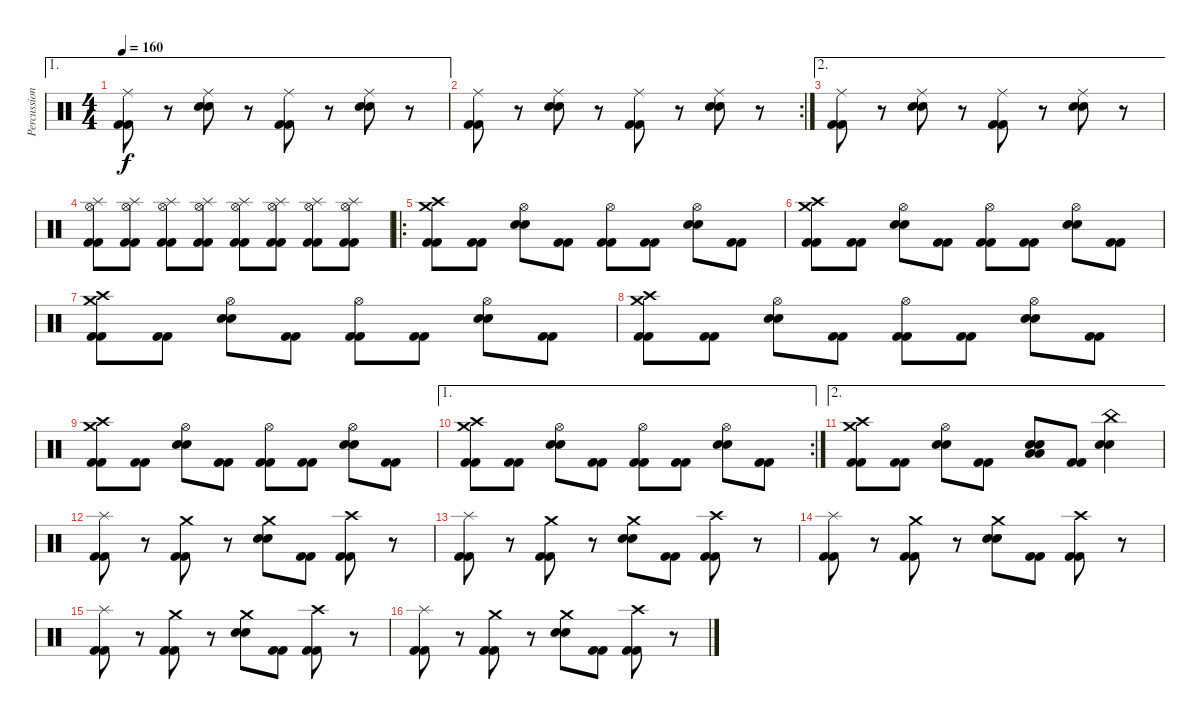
\track ("Percussion" "Percussion") {instrument percussion}
\staff {score}
\articulation defaults
\ae 1
\ts (4 4)
\tempo 160
\clef neutral
\ks c
("Ride (middle)" "Kick (hit) 2" "Kick (hit) 2").8{dy f} r.8 ("Ride (middle)" "Snare (hit) 2" "Snare (hit) 2").8 r.8 ("Ride (middle)" "Kick (hit) 2" "Kick (hit) 2").8 r.8 ("Ride (middle)" "Snare (hit) 2" "Snare (hit) 2").8 r.8 |
\rc 2
("Ride (middle)" "Kick (hit) 2" "Kick (hit) 2").8 r.8 ("Ride (middle)" "Snare (hit) 2" "Snare (hit) 2").8 r.8 ("Ride (middle)" "Kick (hit) 2" "Kick (hit) 2").8 r.8 ("Ride (middle)" "Snare (hit) 2" "Snare (hit) 2").8 r.8 |
\ae 2
("Ride (middle)" "Kick (hit) 2" "Kick (hit) 2").8 r.8 ("Ride (middle)" "Snare (hit) 2" "Snare (hit) 2").8 r.8 ("Ride (middle)" "Kick (hit) 2" "Kick (hit) 2").8 r.8 ("Ride (middle)" "Snare (hit) 2" "Snare (hit) 2").8 r.8 |
("Splash (hit)" "Hi-Hat (open)" "Kick (hit) 2" "Kick (hit) 2").8 ("Splash (hit)" "Hi-Hat (open)" "Kick (hit) 2" "Kick (hit) 2").8 ("Splash (hit)" "Hi-Hat (open)" "Kick (hit) 2" "Kick (hit) 2").8 ("Splash (hit)" "Hi-Hat (open)" "Kick (hit) 2" "Kick (hit) 2").8 ("Splash (hit)" "Hi-Hat (open)" "Kick (hit) 2" "Kick (hit) 2").8 ("Splash (hit)" "Hi-Hat (open)" "Kick (hit) 2" "Kick (hit) 2").8 ("Splash (hit)" "Hi-Hat (open)" "Kick (hit) 2" "Kick (hit) 2").8 ("Splash (hit)" "Hi-Hat (open)" "Kick (hit) 2" "Kick (hit) 2").8 |
\ro
("Crash medium (hit)" "Crash high (hit)" "Kick (hit) 2" "Kick (hit) 2").8 ("Kick (hit) 2" "Kick (hit) 2").8 ("Hi-Hat (open)" "Snare (hit) 2" "Snare (hit) 2").8 ("Kick (hit) 2" "Kick (hit) 2").8 ("Hi-Hat (open)" "Kick (hit) 2" "Kick (hit) 2").8 ("Kick (hit) 2" "Kick (hit) 2").8 ("Hi-Hat (open)" "Snare (hit) 2" "Snare (hit) 2").8 ("Kick (hit) 2" "Kick (hit) 2").8 |
("Crash medium (hit)" "Crash high (hit)" "Kick (hit) 2" "Kick (hit) 2").8 ("Kick (hit) 2" "Kick (hit) 2").8 ("Hi-Hat (open)" "Snare (hit) 2" "Snare (hit) 2").8 ("Kick (hit) 2" "Kick (hit) 2").8 ("Hi-Hat (open)" "Kick (hit) 2" "Kick (hit) 2").8 ("Kick (hit) 2" "Kick (hit) 2").8 ("Hi-Hat (open)" "Snare (hit) 2" "Snare (hit) 2").8 ("Kick (hit) 2" "Kick (hit) 2").8 |
("Crash medium (hit)" "Crash high (hit)" "Kick (hit) 2" "Kick (hit) 2").8 ("Kick (hit) 2" "Kick (hit) 2").8 ("Hi-Hat (open)" "Snare (hit) 2" "Snare (hit) 2").8 ("Kick (hit) 2" "Kick (hit) 2").8 ("Hi-Hat (open)" "Kick (hit) 2" "Kick (hit) 2").8 ("Kick (hit) 2" "Kick (hit) 2").8 ("Hi-Hat (open)" "Snare (hit) 2" "Snare (hit) 2").8 ("Kick (hit) 2" "Kick (hit) 2").8 |
("Crash medium (hit)" "Crash high (hit)" "Kick (hit) 2" "Kick (hit) 2").8 ("Kick (hit) 2" "Kick (hit) 2").8 ("Hi-Hat (open)" "Snare (hit) 2" "Snare (hit) 2").8 ("Kick (hit) 2" "Kick (hit) 2").8 ("Hi-Hat (open)" "Kick (hit) 2" "Kick (hit) 2").8 ("Kick (hit) 2" "Kick (hit) 2").8 ("Hi-Hat (open)" "Snare (hit) 2" "Snare (hit) 2").8 ("Kick (hit) 2" "Kick (hit) 2").8 |
("Crash medium (hit)" "Crash high (hit)" "Kick (hit) 2" "Kick (hit) 2").8 ("Kick (hit) 2" "Kick (hit) 2").8 ("Hi-Hat (open)" "Snare (hit) 2" "Snare (hit) 2").8 ("Kick (hit) 2" "Kick (hit) 2").8 ("Hi-Hat (open)" "Kick (hit) 2" "Kick (hit) 2").8 ("Kick (hit) 2" "Kick (hit) 2").8 ("Hi-Hat (open)" "Snare (hit) 2" "Snare (hit) 2").8 ("Kick (hit) 2" "Kick (hit) 2").8 |
\ae 1
\rc 2
("Crash medium (hit)" "Crash high (hit)" "Kick (hit) 2" "Kick (hit) 2").8 ("Kick (hit) 2" "Kick (hit) 2").8 ("Hi-Hat (open)" "Snare (hit) 2" "Snare (hit) 2").8 ("Kick (hit) 2" "Kick (hit) 2").8 ("Hi-Hat (open)" "Kick (hit) 2" "Kick (hit) 2").8 ("Kick (hit) 2" "Kick (hit) 2").8 ("Hi-Hat (open)" "Snare (hit) 2" "Snare (hit) 2").8 ("Kick (hit) 2" "Kick (hit) 2").8 |
\ae 2
("Crash medium (hit)" "Crash high (hit)" "Kick (hit) 2" "Kick (hit) 2").8 ("Kick (hit) 2" "Kick (hit) 2").8 ("Hi-Hat (open)" "Snare (hit) 2" "Snare (hit) 2").8 ("Kick (hit) 2" "Kick (hit) 2").8 ("Low Floor Tom (hit)" "Low Floor Tom (hit)" "Snare (hit) 2" "Snare (hit) 2").8 ("Kick (hit) 2" "Kick (hit) 2").8 ("China (hit)" "Snare (hit) 2" "Snare (hit) 2").4 |
("Splash (hit)" "Kick (hit) 2" "Kick (hit) 2").8 r.8 ("Crash medium (hit)" "Kick (hit) 2" "Kick (hit) 2").8 r.8 ("Crash medium (hit)" "Snare (hit) 2" "Snare (hit) 2").8 ("Kick (hit) 2" "Kick (hit) 2").8 ("Crash high (hit)" "Kick (hit) 2" "Kick (hit) 2").8 r.8 |
("Splash (hit)" "Kick (hit) 2" "Kick (hit) 2").8 r.8 ("Crash medium (hit)" "Kick (hit) 2" "Kick (hit) 2").8 r.8 ("Crash medium (hit)" "Snare (hit) 2" "Snare (hit) 2").8 ("Kick (hit) 2" "Kick (hit) 2").8 ("Crash high (hit)" "Kick (hit) 2" "Kick (hit) 2").8 r.8 |
("Splash (hit)" "Kick (hit) 2" "Kick (hit) 2").8 r.8 ("Crash medium (hit)" "Kick (hit) 2" "Kick (hit) 2").8 r.8 ("Crash medium (hit)" "Snare (hit) 2" "Snare (hit) 2").8 ("Kick (hit) 2" "Kick (hit) 2").8 ("Crash high (hit)" "Kick (hit) 2" "Kick (hit) 2").8 r.8 |
("Splash (hit)" "Kick (hit) 2" "Kick (hit) 2").8 r.8 ("Crash medium (hit)" "Kick (hit) 2" "Kick (hit) 2").8 r.8 ("Crash medium (hit)" "Snare (hit) 2" "Snare (hit) 2").8 ("Kick (hit) 2" "Kick (hit) 2").8 ("Crash high (hit)" "Kick (hit) 2" "Kick (hit) 2").8 r.8 |
("Splash (hit)" "Kick (hit) 2" "Kick (hit) 2").8 r.8 ("Crash medium (hit)" "Kick (hit) 2" "Kick (hit) 2").8 r.8 ("Crash medium (hit)" "Snare (hit) 2" "Snare (hit) 2").8 ("Kick (hit) 2" "Kick (hit) 2").8 ("Crash high (hit)" "Kick (hit) 2" "Kick (hit) 2").8 r.8
